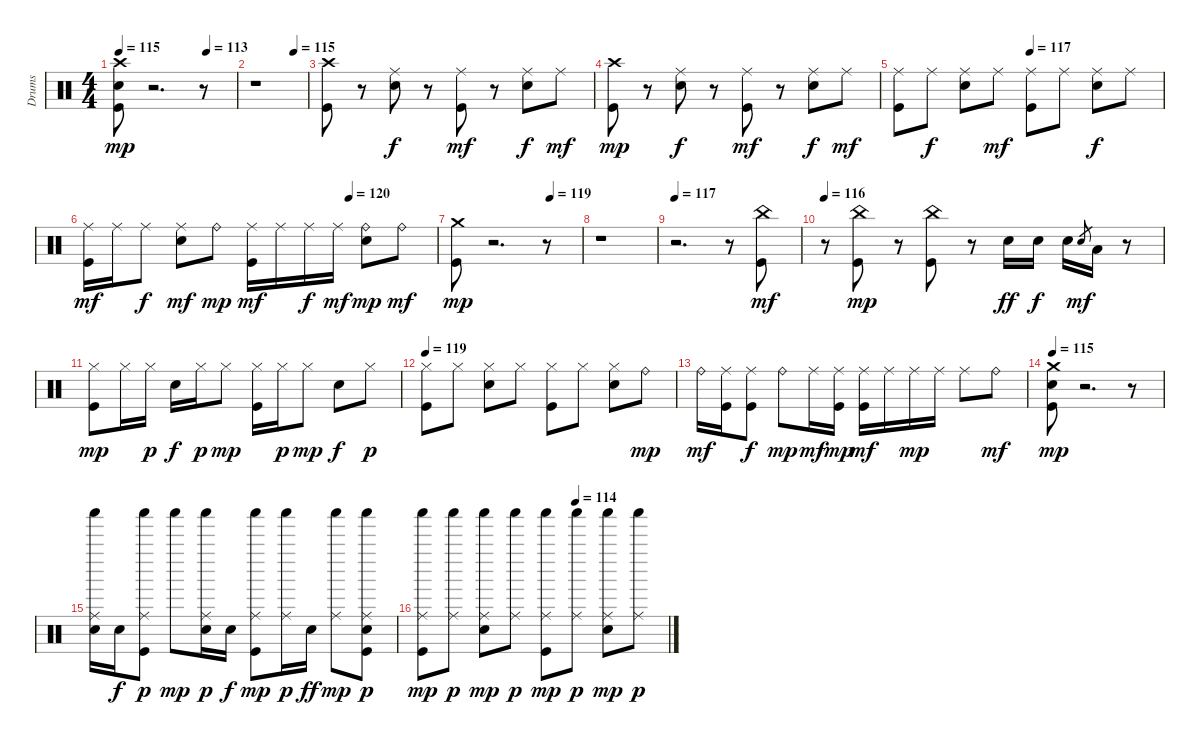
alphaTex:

\track ("Drums" "Drums") {instrument percussion}
\staff {score}
\articulation defaults
\ts (4 4)
\tempo 115
\tempo (113 0.75)
\clef neutral
\ks c
("Kick (hit)" "Electric Snare (hit)" "Crash high (hit)").8{dy mp} r.2{d} r.8 |
\tempo (115 0.75)
r.1 |
("Kick (hit)" "Crash high (hit)").8 r.8 ("Electric Snare (hit)" "Ride (middle)").8{dy f} r.8 ("Kick (hit)" "Ride (middle)").8{dy mf} r.8 ("Electric Snare (hit)" "Ride (middle)").8{dy f} "Ride (middle)".8{dy mf} |
("Kick (hit)" "Crash high (hit)").8{dy mp} r.8 ("Electric Snare (hit)" "Ride (middle)").8{dy f} r.8 ("Kick (hit)" "Ride (middle)").8{dy mf} r.8 ("Electric Snare (hit)" "Ride (middle)").8{dy f} "Ride (middle)".8{dy mf} |
\tempo (117 0.5)
("Kick (hit)" "Ride (middle)").8 "Ride (middle)".8{dy f} ("Electric Snare (hit)" "Ride (middle)").8 "Ride (middle)".8{dy mf} ("Kick (hit)" "Ride (middle)").8 "Ride (middle)".8 ("Electric Snare (hit)" "Ride (middle)").8{dy f} "Ride (middle)".8 |
\tempo (120 0.75)
("Kick (hit)" "Ride (middle)").16{dy mf} "Ride (middle)".16 "Ride (middle)".8{dy f} ("Electric Snare (hit)" "Ride (middle)").8{dy mf} "Ride (bell)".8{dy mp} ("Kick (hit)" "Ride (middle)").16{dy mf} "Ride (middle)".16 "Ride (middle)".16{dy f} "Ride (middle)".16{dy mf} ("Electric Snare (hit)" "Ride (bell)").8{dy mp} "Ride (bell)".8{dy mf} |
\tempo (119 0.75)
("Kick (hit)" "Crash medium (hit)").8{dy mp} r.2{d} r.8 |
r.1 |
\tempo 117
r.2{d} r.8 ("Kick (hit)" "China (hit)").8{dy mf} |
\tempo 116
r.8 ("Kick (hit)" "China (hit)").8{dy mp} r.8 ("Kick (hit)" "China (hit)").8 r.8 "Electric Snare (hit)".16{dy ff} "Electric Snare (hit)".16{dy f} "Electric Snare (hit)".16 "Electric Snare (hit)".8{gr dy mf} "Low Tom (hit)".16 r.8 |
("Kick (hit)" "Hi-Hat (closed)").8{dy mp} "Hi-Hat (closed)".16 "Hi-Hat (closed)".16{dy p} "Electric Snare (hit)".16{dy f} "Hi-Hat (closed)".16{dy p} "Hi-Hat (closed)".8{dy mp} ("Kick (hit)" "Hi-Hat (closed)").16 "Hi-Hat (closed)".16{dy p} "Hi-Hat (closed)".8{dy mp} "Electric Snare (hit)".8{dy f} "Hi-Hat (closed)".8{dy p} |
\tempo 119
("Kick (hit)" "Hi-Hat (closed)").8 "Hi-Hat (closed)".8 ("Electric Snare (hit)" "Hi-Hat (closed)").8 "Hi-Hat (closed)".8 ("Kick (hit)" "Hi-Hat (closed)").8 "Hi-Hat (closed)".8 ("Electric Snare (hit)" "Hi-Hat (closed)").8 "Ride (bell)".8{dy mp} |
"Ride (bell)".16{dy mf} ("Kick (hit)" "Ride (middle)").16 ("Kick (hit)" "Ride (middle)").8{dy f} "Ride (bell)".8{dy mp} "Ride (middle)".16{dy mf} ("Kick (hit)" "Ride (middle)").16{dy mp} ("Kick (hit)" "Ride (middle)").16{dy mf} "Ride (middle)".16 "Ride (middle)".16{dy mp} "Ride (middle)".16 "Ride (middle)".8 "Ride (bell)".8{dy mf} |
\tempo 115
("Kick (hit)" "Electric Snare (hit)" "Crash medium (hit)").8{dy mp} r.2{d} r.8 |
("Electric Snare (hit)" "Ride (middle)" "Shaker (hit)").16 "Electric Snare (hit)".16{dy f} ("Kick (hit)" "Ride (middle)" "Shaker (hit)").8{dy p} "Shaker (hit)".8{dy mp} ("Electric Snare (hit)" "Ride (middle)" "Shaker (hit)").16{dy p} "Electric Snare (hit)".16{dy f} ("Kick (hit)" "Ride (middle)" "Shaker (hit)").8{dy mp} ("Ride (middle)" "Shaker (hit)").16{dy p} "Electric Snare (hit)".16{dy ff} ("Ride (middle)" "Shaker (hit)").8{dy mp} ("Kick (hit)" "Electric Snare (hit)" "Ride (middle)" "Shaker (hit)").8{dy p} |
\tempo (114 0.625)
("Kick (hit)" "Ride (middle)" "Shaker (hit)").8{dy mp} ("Ride (middle)" "Shaker (hit)").8{dy p} ("Electric Snare (hit)" "Ride (middle)" "Shaker (hit)").8{dy mp} ("Ride (middle)" "Shaker (hit)").8{dy p} ("Kick (hit)" "Ride (middle)" "Shaker (hit)").8{dy mp} ("Ride (middle)" "Shaker (hit)").8{dy p} ("Electric Snare (hit)" "Ride (middle)" "Shaker (hit)").8{dy mp} ("Ride (middle)" "Shaker (hit)").8{dy p}
